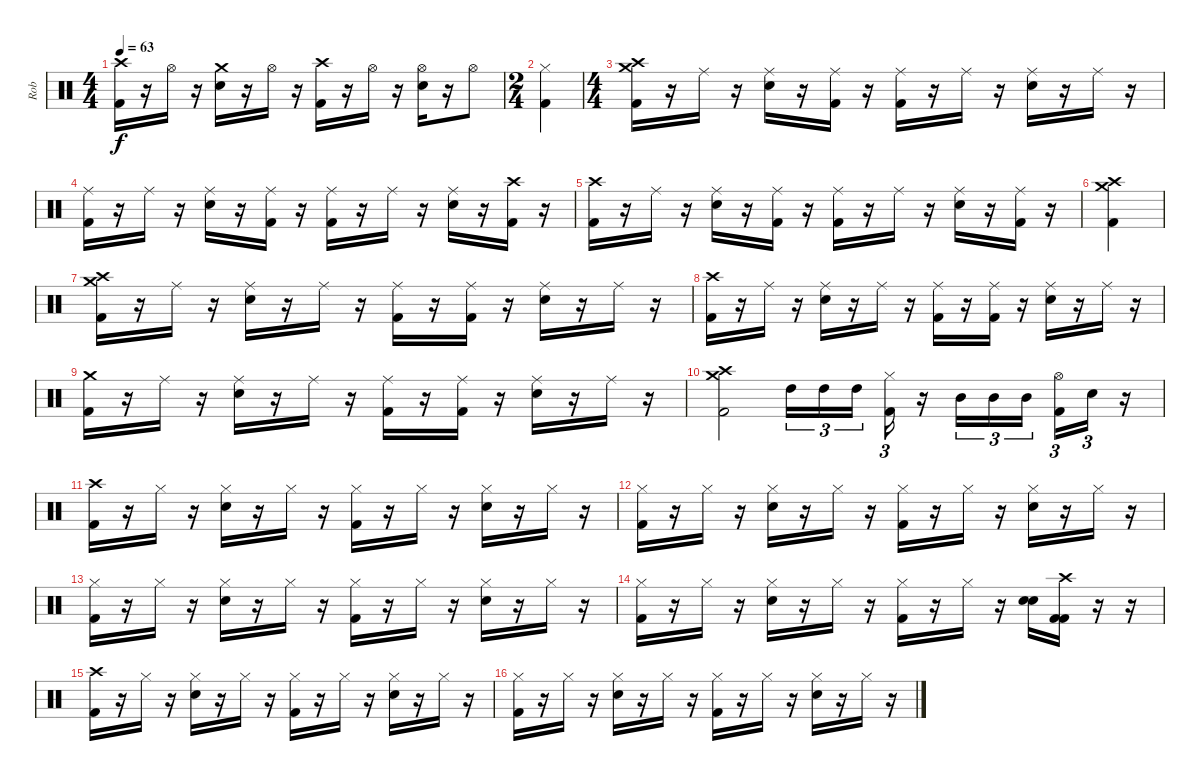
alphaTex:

\track ("Rob" "Rob") {instrument percussion}
\staff {score}
\articulation defaults
\ts (4 4)
\tempo 63
\clef neutral
\ks c
("Crash high (hit)" "Kick (hit) 2").16{dy f} r.16 "Hi-Hat (open)".16 r.16 ("Crash medium (hit)" "Electric Snare (hit)").16 r.16 "Hi-Hat (open)".16 r.16 ("Crash high (hit)" "Kick (hit) 2").16 r.16 "Hi-Hat (open)".16 r.16 ("Hi-Hat (open)" "Electric Snare (hit)").16 r.16 "Hi-Hat (open)".8 |
\ts (2 4)
("Hi-Hat (closed)" "Kick (hit) 2").4 |
\ts (4 4)
("Crash medium (hit)" "Crash high (hit)" "Kick (hit) 2").16 r.16 "Ride (middle)".16 r.16 ("Ride (middle)" "Electric Snare (hit)").16 r.16 ("Ride (middle)" "Kick (hit) 2").16 r.16 ("Ride (middle)" "Kick (hit) 2").16 r.16 "Ride (middle)".16 r.16 ("Ride (middle)" "Electric Snare (hit)").16 r.16 "Ride (middle)".16 r.16 |
("Ride (middle)" "Kick (hit) 2").16 r.16 "Ride (middle)".16 r.16 ("Ride (middle)" "Electric Snare (hit)").16 r.16 ("Ride (middle)" "Kick (hit) 2").16 r.16 ("Ride (middle)" "Kick (hit) 2").16 r.16 "Ride (middle)".16 r.16 ("Ride (middle)" "Electric Snare (hit)").16 r.16 ("Crash high (hit)" "Kick (hit) 2").16 r.16 |
("Crash high (hit)" "Kick (hit) 2").16 r.16 "Ride (middle)".16 r.16 ("Ride (middle)" "Electric Snare (hit)").16 r.16 ("Ride (middle)" "Kick (hit) 2").16 r.16 ("Ride (middle)" "Kick (hit) 2").16 r.16 "Ride (middle)".16 r.16 ("Ride (middle)" "Electric Snare (hit)").16 r.16 ("Ride (middle)" "Kick (hit) 2").16 r.16 |
("Crash medium (hit)" "Crash high (hit)" "Kick (hit) 2").4 |
("Crash medium (hit)" "Crash high (hit)" "Kick (hit) 2").16 r.16 "Ride (middle)".16 r.16 ("Ride (middle)" "Electric Snare (hit)").16 r.16 "Ride (middle)".16 r.16 ("Ride (middle)" "Kick (hit) 2").16 r.16 ("Ride (middle)" "Kick (hit) 2").16 r.16 ("Ride (middle)" "Electric Snare (hit)").16 r.16 "Ride (middle)".16 r.16 |
("Crash high (hit)" "Kick (hit) 2").16 r.16 "Ride (middle)".16 r.16 ("Ride (middle)" "Electric Snare (hit)").16 r.16 "Ride (middle)".16 r.16 ("Ride (middle)" "Kick (hit) 2").16 r.16 ("Ride (middle)" "Kick (hit) 2").16 r.16 ("Ride (middle)" "Electric Snare (hit)").16 r.16 "Ride (middle)".16 r.16 |
("Crash medium (hit)" "Kick (hit) 2").16 r.16 "Ride (middle)".16 r.16 ("Ride (middle)" "Electric Snare (hit)").16 r.16 "Ride (middle)".16 r.16 ("Ride (middle)" "Kick (hit) 2").16 r.16 ("Ride (middle)" "Kick (hit) 2").16 r.16 ("Ride (middle)" "Electric Snare (hit)").16 r.16 "Ride (middle)".16 r.16 |
("Crash medium (hit)" "Crash high (hit)" "Kick (hit) 2").2 "High Tom (hit)".16{tu (3 2)} "High Tom (hit)".16{tu (3 2)} "High Tom (hit)".16{tu (3 2)} ("Hi-Hat (closed)" "Kick (hit) 2").16{tu (3 2)} r.16 "Mid Tom (hit)".16{tu (3 2)} "Mid Tom (hit)".16{tu (3 2)} "Mid Tom (hit)".16{tu (3 2)} ("Hi-Hat (open)" "Kick (hit) 2").16{tu (3 2)} "Electric Snare (hit)".16{tu (3 2)} r.16 |
("Crash high (hit)" "Kick (hit) 2").16 r.16 "Hi-Hat (closed)".16 r.16 ("Hi-Hat (closed)" "Electric Snare (hit)").16 r.16 "Hi-Hat (closed)".16 r.16 ("Hi-Hat (closed)" "Kick (hit) 2").16 r.16 "Hi-Hat (closed)".16 r.16 ("Hi-Hat (closed)" "Electric Snare (hit)").16 r.16 "Hi-Hat (closed)".16 r.16 |
("Hi-Hat (closed)" "Kick (hit) 2").16 r.16 "Hi-Hat (closed)".16 r.16 ("Hi-Hat (closed)" "Electric Snare (hit)").16 r.16 "Hi-Hat (closed)".16 r.16 ("Hi-Hat (closed)" "Kick (hit) 2").16 r.16 "Hi-Hat (closed)".16 r.16 ("Hi-Hat (closed)" "Electric Snare (hit)").16 r.16 "Hi-Hat (closed)".16 r.16 |
("Hi-Hat (closed)" "Kick (hit) 2").16 r.16 "Hi-Hat (closed)".16 r.16 ("Hi-Hat (closed)" "Electric Snare (hit)").16 r.16 "Hi-Hat (closed)".16 r.16 ("Hi-Hat (closed)" "Kick (hit) 2").16 r.16 "Hi-Hat (closed)".16 r.16 ("Hi-Hat (closed)" "Electric Snare (hit)").16 r.16 "Hi-Hat (closed)".16 r.16 |
("Hi-Hat (closed)" "Kick (hit) 2").16 r.16 "Hi-Hat (closed)".16 r.16 ("Hi-Hat (closed)" "Electric Snare (hit)").16 r.16 "Hi-Hat (closed)".16 r.16 ("Hi-Hat (closed)" "Kick (hit) 2").16 r.16 "Hi-Hat (closed)".16 r.16 ("Electric Snare (hit)" "Electric Snare (hit)").16 ("Crash high (hit)" "Kick (hit) 2" "Kick (hit) 2").16 r.16 r.16 |
("Crash high (hit)" "Kick (hit) 2").16 r.16 "Hi-Hat (closed)".16 r.16 ("Hi-Hat (closed)" "Electric Snare (hit)").16 r.16 "Hi-Hat (closed)".16 r.16 ("Hi-Hat (closed)" "Kick (hit) 2").16 r.16 "Hi-Hat (closed)".16 r.16 ("Hi-Hat (closed)" "Electric Snare (hit)").16 r.16 "Hi-Hat (closed)".16 r.16 |
("Hi-Hat (closed)" "Kick (hit) 2").16 r.16 "Hi-Hat (closed)".16 r.16 ("Hi-Hat (closed)" "Electric Snare (hit)").16 r.16 "Hi-Hat (closed)".16 r.16 ("Hi-Hat (closed)" "Kick (hit) 2").16 r.16 "Hi-Hat (closed)".16 r.16 ("Hi-Hat (closed)" "Electric Snare (hit)").16 r.16 "Hi-Hat (closed)".16 r.16
